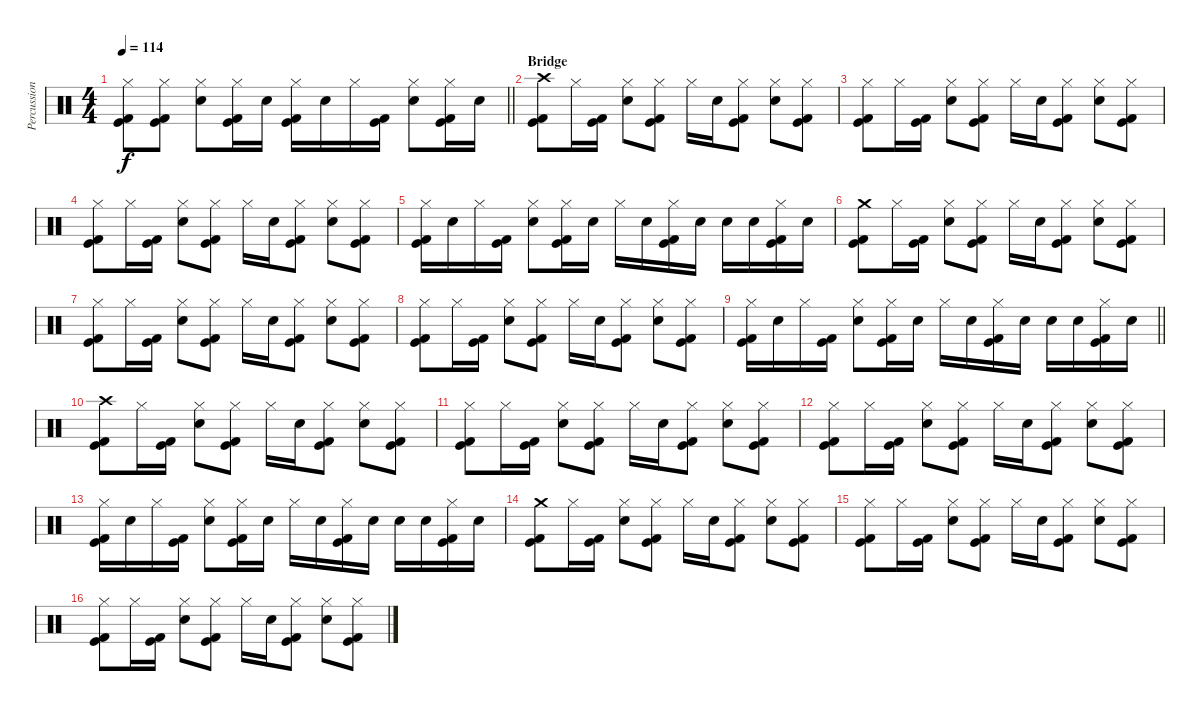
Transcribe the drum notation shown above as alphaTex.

\track ("Percussion" "Percussion") {instrument percussion}
\staff {score}
\articulation defaults
\ts (4 4)
\tempo 114
\clef neutral
\barLineRight lightlight
\ks c
("Hi-Hat (closed)" "Kick (hit)" "Kick (hit) 2").8{dy f} ("Hi-Hat (closed)" "Kick (hit)" "Kick (hit) 2").8 ("Hi-Hat (closed)" "Electric Snare (hit)").8 ("Hi-Hat (closed)" "Kick (hit)" "Kick (hit) 2").16 "Electric Snare (hit)".16 ("Hi-Hat (closed)" "Kick (hit)" "Kick (hit) 2").16 "Electric Snare (hit)".16 "Hi-Hat (closed)".16 ("Kick (hit)" "Kick (hit) 2").16 ("Hi-Hat (closed)" "Electric Snare (hit)").8 ("Hi-Hat (closed)" "Kick (hit)" "Kick (hit) 2").16 "Electric Snare (hit)".16 |
\section ("" "Bridge")
("Crash high (hit)" "Kick (hit)" "Kick (hit) 2").8 "Hi-Hat (closed)".16 ("Kick (hit)" "Kick (hit) 2").16 ("Hi-Hat (closed)" "Electric Snare (hit)").8 ("Hi-Hat (closed)" "Kick (hit)" "Kick (hit) 2").8 "Hi-Hat (closed)".16 "Electric Snare (hit)".16 ("Hi-Hat (closed)" "Kick (hit)" "Kick (hit) 2").8 ("Hi-Hat (closed)" "Electric Snare (hit)").8 ("Hi-Hat (closed)" "Kick (hit)" "Kick (hit) 2").8 |
("Hi-Hat (closed)" "Kick (hit)" "Kick (hit) 2").8 "Hi-Hat (closed)".16 ("Kick (hit)" "Kick (hit) 2").16 ("Hi-Hat (closed)" "Electric Snare (hit)").8 ("Hi-Hat (closed)" "Kick (hit)" "Kick (hit) 2").8 "Hi-Hat (closed)".16 "Electric Snare (hit)".16 ("Hi-Hat (closed)" "Kick (hit)" "Kick (hit) 2").8 ("Hi-Hat (closed)" "Electric Snare (hit)").8 ("Hi-Hat (closed)" "Kick (hit)" "Kick (hit) 2").8 |
("Hi-Hat (closed)" "Kick (hit)" "Kick (hit) 2").8 "Hi-Hat (closed)".16 ("Kick (hit)" "Kick (hit) 2").16 ("Hi-Hat (closed)" "Electric Snare (hit)").8 ("Hi-Hat (closed)" "Kick (hit)" "Kick (hit) 2").8 "Hi-Hat (closed)".16 "Electric Snare (hit)".16 ("Hi-Hat (closed)" "Kick (hit)" "Kick (hit) 2").8 ("Hi-Hat (closed)" "Electric Snare (hit)").8 ("Hi-Hat (closed)" "Kick (hit)" "Kick (hit) 2").8 |
("Hi-Hat (closed)" "Kick (hit)" "Kick (hit) 2").16 "Electric Snare (hit)".16 "Hi-Hat (closed)".16 ("Kick (hit)" "Kick (hit) 2").16 ("Hi-Hat (closed)" "Electric Snare (hit)").8 ("Hi-Hat (closed)" "Kick (hit)" "Kick (hit) 2").16 "Electric Snare (hit)".16 "Hi-Hat (closed)".16 "Electric Snare (hit)".16 ("Hi-Hat (closed)" "Kick (hit)" "Kick (hit) 2").16 "Electric Snare (hit)".16 "Electric Snare (hit)".16 "Electric Snare (hit)".16 ("Hi-Hat (closed)" "Kick (hit)" "Kick (hit) 2").16 "Electric Snare (hit)".16 |
("Crash medium (hit)" "Kick (hit)" "Kick (hit) 2").8 "Hi-Hat (closed)".16 ("Kick (hit)" "Kick (hit) 2").16 ("Hi-Hat (closed)" "Electric Snare (hit)").8 ("Hi-Hat (closed)" "Kick (hit)" "Kick (hit) 2").8 "Hi-Hat (closed)".16 "Electric Snare (hit)".16 ("Hi-Hat (closed)" "Kick (hit)" "Kick (hit) 2").8 ("Hi-Hat (closed)" "Electric Snare (hit)").8 ("Hi-Hat (closed)" "Kick (hit)" "Kick (hit) 2").8 |
("Hi-Hat (closed)" "Kick (hit)" "Kick (hit) 2").8 "Hi-Hat (closed)".16 ("Kick (hit)" "Kick (hit) 2").16 ("Hi-Hat (closed)" "Electric Snare (hit)").8 ("Hi-Hat (closed)" "Kick (hit)" "Kick (hit) 2").8 "Hi-Hat (closed)".16 "Electric Snare (hit)".16 ("Hi-Hat (closed)" "Kick (hit)" "Kick (hit) 2").8 ("Hi-Hat (closed)" "Electric Snare (hit)").8 ("Hi-Hat (closed)" "Kick (hit)" "Kick (hit) 2").8 |
("Hi-Hat (closed)" "Kick (hit)" "Kick (hit) 2").8 "Hi-Hat (closed)".16 ("Kick (hit)" "Kick (hit) 2").16 ("Hi-Hat (closed)" "Electric Snare (hit)").8 ("Hi-Hat (closed)" "Kick (hit)" "Kick (hit) 2").8 "Hi-Hat (closed)".16 "Electric Snare (hit)".16 ("Hi-Hat (closed)" "Kick (hit)" "Kick (hit) 2").8 ("Hi-Hat (closed)" "Electric Snare (hit)").8 ("Hi-Hat (closed)" "Kick (hit)" "Kick (hit) 2").8 |
\barLineRight lightlight
("Hi-Hat (closed)" "Kick (hit)" "Kick (hit) 2").16 "Electric Snare (hit)".16 "Hi-Hat (closed)".16 ("Kick (hit)" "Kick (hit) 2").16 ("Hi-Hat (closed)" "Electric Snare (hit)").8 ("Hi-Hat (closed)" "Kick (hit)" "Kick (hit) 2").16 "Electric Snare (hit)".16 "Hi-Hat (closed)".16 "Electric Snare (hit)".16 ("Hi-Hat (closed)" "Kick (hit)" "Kick (hit) 2").16 "Electric Snare (hit)".16 "Electric Snare (hit)".16 "Electric Snare (hit)".16 ("Hi-Hat (closed)" "Kick (hit)" "Kick (hit) 2").16 "Electric Snare (hit)".16 |
\section ("" "")
("Crash high (hit)" "Kick (hit)" "Kick (hit) 2").8 "Hi-Hat (closed)".16 ("Kick (hit)" "Kick (hit) 2").16 ("Hi-Hat (closed)" "Electric Snare (hit)").8 ("Hi-Hat (closed)" "Kick (hit)" "Kick (hit) 2").8 "Hi-Hat (closed)".16 "Electric Snare (hit)".16 ("Hi-Hat (closed)" "Kick (hit)" "Kick (hit) 2").8 ("Hi-Hat (closed)" "Electric Snare (hit)").8 ("Hi-Hat (closed)" "Kick (hit)" "Kick (hit) 2").8 |
("Hi-Hat (closed)" "Kick (hit)" "Kick (hit) 2").8 "Hi-Hat (closed)".16 ("Kick (hit)" "Kick (hit) 2").16 ("Hi-Hat (closed)" "Electric Snare (hit)").8 ("Hi-Hat (closed)" "Kick (hit)" "Kick (hit) 2").8 "Hi-Hat (closed)".16 "Electric Snare (hit)".16 ("Hi-Hat (closed)" "Kick (hit)" "Kick (hit) 2").8 ("Hi-Hat (closed)" "Electric Snare (hit)").8 ("Hi-Hat (closed)" "Kick (hit)" "Kick (hit) 2").8 |
("Hi-Hat (closed)" "Kick (hit)" "Kick (hit) 2").8 "Hi-Hat (closed)".16 ("Kick (hit)" "Kick (hit) 2").16 ("Hi-Hat (closed)" "Electric Snare (hit)").8 ("Hi-Hat (closed)" "Kick (hit)" "Kick (hit) 2").8 "Hi-Hat (closed)".16 "Electric Snare (hit)".16 ("Hi-Hat (closed)" "Kick (hit)" "Kick (hit) 2").8 ("Hi-Hat (closed)" "Electric Snare (hit)").8 ("Hi-Hat (closed)" "Kick (hit)" "Kick (hit) 2").8 |
("Hi-Hat (closed)" "Kick (hit)" "Kick (hit) 2").16 "Electric Snare (hit)".16 "Hi-Hat (closed)".16 ("Kick (hit)" "Kick (hit) 2").16 ("Hi-Hat (closed)" "Electric Snare (hit)").8 ("Hi-Hat (closed)" "Kick (hit)" "Kick (hit) 2").16 "Electric Snare (hit)".16 "Hi-Hat (closed)".16 "Electric Snare (hit)".16 ("Hi-Hat (closed)" "Kick (hit)" "Kick (hit) 2").16 "Electric Snare (hit)".16 "Electric Snare (hit)".16 "Electric Snare (hit)".16 ("Hi-Hat (closed)" "Kick (hit)" "Kick (hit) 2").16 "Electric Snare (hit)".16 |
("Crash medium (hit)" "Kick (hit)" "Kick (hit) 2").8 "Hi-Hat (closed)".16 ("Kick (hit)" "Kick (hit) 2").16 ("Hi-Hat (closed)" "Electric Snare (hit)").8 ("Hi-Hat (closed)" "Kick (hit)" "Kick (hit) 2").8 "Hi-Hat (closed)".16 "Electric Snare (hit)".16 ("Hi-Hat (closed)" "Kick (hit)" "Kick (hit) 2").8 ("Hi-Hat (closed)" "Electric Snare (hit)").8 ("Hi-Hat (closed)" "Kick (hit)" "Kick (hit) 2").8 |
("Hi-Hat (closed)" "Kick (hit)" "Kick (hit) 2").8 "Hi-Hat (closed)".16 ("Kick (hit)" "Kick (hit) 2").16 ("Hi-Hat (closed)" "Electric Snare (hit)").8 ("Hi-Hat (closed)" "Kick (hit)" "Kick (hit) 2").8 "Hi-Hat (closed)".16 "Electric Snare (hit)".16 ("Hi-Hat (closed)" "Kick (hit)" "Kick (hit) 2").8 ("Hi-Hat (closed)" "Electric Snare (hit)").8 ("Hi-Hat (closed)" "Kick (hit)" "Kick (hit) 2").8 |
("Hi-Hat (closed)" "Kick (hit)" "Kick (hit) 2").8 "Hi-Hat (closed)".16 ("Kick (hit)" "Kick (hit) 2").16 ("Hi-Hat (closed)" "Electric Snare (hit)").8 ("Hi-Hat (closed)" "Kick (hit)" "Kick (hit) 2").8 "Hi-Hat (closed)".16 "Electric Snare (hit)".16 ("Hi-Hat (closed)" "Kick (hit)" "Kick (hit) 2").8 ("Hi-Hat (closed)" "Electric Snare (hit)").8 ("Hi-Hat (closed)" "Kick (hit)" "Kick (hit) 2").8
